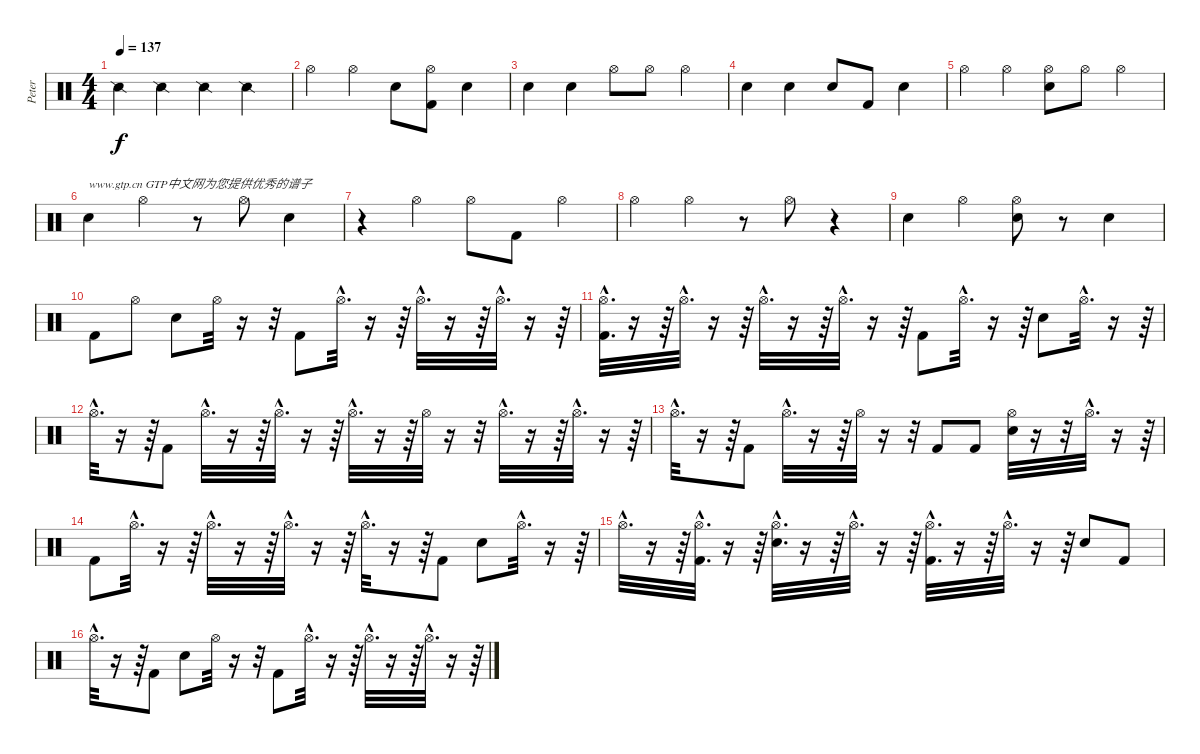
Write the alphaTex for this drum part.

\track ("Peter" "Peter") {instrument percussion}
\staff {score}
\articulation defaults
\ts (4 4)
\tempo 137
\clef neutral
\ks c "Snare (side stick) 2".4{dy f} "Snare (side stick) 2".4 "Snare (side stick) 2".4 "Snare (side stick) 2".4
|
"Hi-Hat (open)".4 "Hi-Hat (open)".4 "Electric Snare (hit)".8 ("Kick (hit) 2" "Hi-Hat (open)").8 "Electric Snare (hit)".4 |
"Electric Snare (hit)".4 "Electric Snare (hit)".4 "Hi-Hat (open)".8 "Hi-Hat (open)".8 "Hi-Hat (open)".4 |
"Electric Snare (hit)".4 "Electric Snare (hit)".4 "Electric Snare (hit)".8 "Kick (hit) 2".8 "Electric Snare (hit)".4 |
"Hi-Hat (open)".4 "Hi-Hat (open)".4 ("Electric Snare (hit)" "Hi-Hat (open)").8 "Hi-Hat (open)".8 "Hi-Hat (open)".4 |
"Electric Snare (hit)".4{txt "www.gtp.cn GTP中文网为您提供优秀的谱子"} "Hi-Hat (open)".4 r.8 "Hi-Hat (open)".8 "Electric Snare (hit)".4 |
r.4 "Hi-Hat (open)".4 "Hi-Hat (open)".8 "Kick (hit) 2".8 "Hi-Hat (open)".4 |
"Hi-Hat (open)".4 "Hi-Hat (open)".4 r.8 "Hi-Hat (open)".8 r.4 |
"Electric Snare (hit)".4 "Hi-Hat (open)".4 ("Electric Snare (hit)" "Hi-Hat (open)").8 r.8 "Electric Snare (hit)".4 |
"Kick (hit) 2".8 "Hi-Hat (open)".8 "Electric Snare (hit)".8 "Hi-Hat (open)".32 r.16 r.32 "Kick (hit) 2".8 "Hi-Hat (open)"{hac}.32{d} r.16 r.64 "Hi-Hat (open)"{hac}.32{d} r.16 r.64 "Hi-Hat (open)"{hac}.32{d} r.16 r.64 |
("Kick (hit) 2"{hac} "Hi-Hat (open)"{hac}).32{d} r.16 r.64 "Hi-Hat (open)"{hac}.32{d} r.16 r.64 "Hi-Hat (open)"{hac}.32{d} r.16 r.64 "Hi-Hat (open)"{hac}.32{d} r.16 r.64 "Kick (hit) 2".8 "Hi-Hat (open)"{hac}.32{d} r.16 r.64 "Electric Snare (hit)".8 "Hi-Hat (open)"{hac}.32{d} r.16 r.64 |
"Hi-Hat (open)"{hac}.32{d} r.16 r.64 "Kick (hit) 2".8 "Hi-Hat (open)"{hac}.32{d} r.16 r.64 "Hi-Hat (open)"{hac}.32{d} r.16 r.64 "Hi-Hat (open)"{hac}.32{d} r.16 r.64 "Hi-Hat (open)".32 r.16 r.32 "Hi-Hat (open)"{hac}.32{d} r.16 r.64 "Hi-Hat (open)"{hac}.32{d} r.16 r.64 |
"Hi-Hat (open)"{hac}.32{d} r.16 r.64 "Kick (hit) 2".8 "Hi-Hat (open)"{hac}.32{d} r.16 r.64 "Hi-Hat (open)".32 r.16 r.32 "Kick (hit) 2".8 "Kick (hit) 2".8 ("Electric Snare (hit)" "Hi-Hat (open)").32 r.16 r.32 "Hi-Hat (open)"{hac}.32{d} r.16 r.64 |
"Kick (hit) 2".8 "Hi-Hat (open)"{hac}.32{d} r.16 r.64 "Hi-Hat (open)"{hac}.32{d} r.16 r.64 "Hi-Hat (open)"{hac}.32{d} r.16 r.64 "Hi-Hat (open)"{hac}.32{d} r.16 r.64 "Kick (hit) 2".8 "Electric Snare (hit)".8 "Hi-Hat (open)"{hac}.32{d} r.16 r.64 |
"Hi-Hat (open)"{hac}.32{d} r.16 r.64 ("Kick (hit) 2"{hac} "Hi-Hat (open)"{hac}).32{d} r.16 r.64 ("Electric Snare (hit)"{hac} "Hi-Hat (open)"{hac}).32{d} r.16 r.64 "Hi-Hat (open)"{hac}.32{d} r.16 r.64 ("Kick (hit) 2"{hac} "Hi-Hat (open)"{hac}).32{d} r.16 r.64 "Hi-Hat (open)"{hac}.32{d} r.16 r.64 "Electric Snare (hit)".8 "Kick (hit) 2".8 |
"Hi-Hat (open)"{hac}.32{d} r.16 r.64 "Kick (hit) 2".8 "Electric Snare (hit)".8 "Hi-Hat (open)".32 r.16 r.32 "Kick (hit) 2".8 "Hi-Hat (open)"{hac}.32{d} r.16 r.64 "Hi-Hat (open)"{hac}.32{d} r.16 r.64 "Hi-Hat (open)"{hac}.32{d} r.16 r.64
